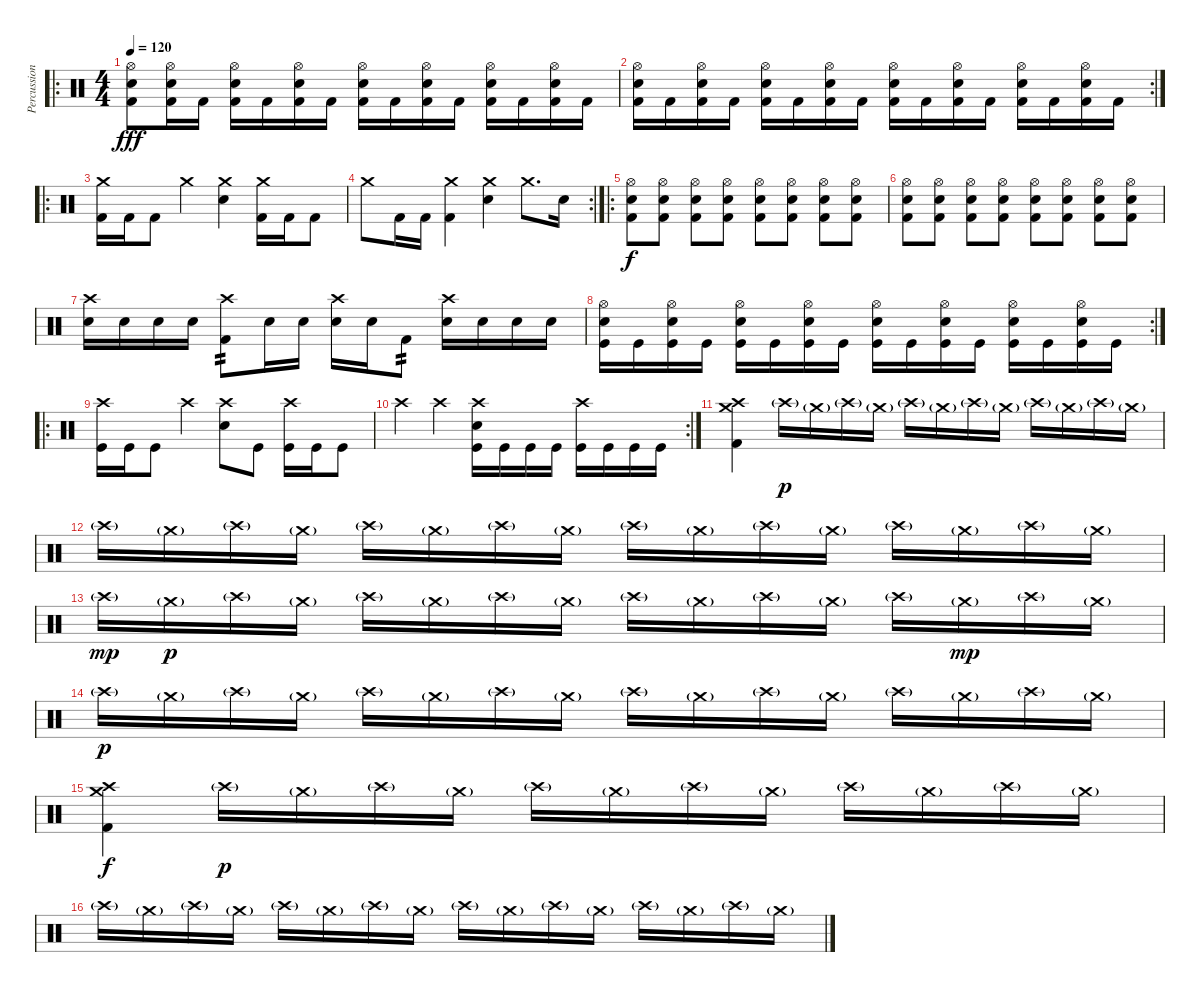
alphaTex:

\track ("Percussions" "Percussion") {instrument percussion}
\staff {score}
\articulation defaults
\ro
\ts (4 4)
\tempo 120
\clef neutral
\ks c
("Hi-Hat (open)" "Electric Snare (hit)" "Kick (hit) 2").8{dy fff volume 12} ("Hi-Hat (open)" "Electric Snare (hit)" "Kick (hit) 2").16 "Kick (hit) 2".16 ("Hi-Hat (open)" "Electric Snare (hit)" "Kick (hit) 2").16 "Kick (hit) 2".16 ("Hi-Hat (open)" "Electric Snare (hit)" "Kick (hit) 2").16 "Kick (hit) 2".16 ("Hi-Hat (open)" "Electric Snare (hit)" "Kick (hit) 2").16 "Kick (hit) 2".16 ("Hi-Hat (open)" "Electric Snare (hit)" "Kick (hit) 2").16 "Kick (hit) 2".16 ("Hi-Hat (open)" "Electric Snare (hit)" "Kick (hit) 2").16 "Kick (hit) 2".16 ("Hi-Hat (open)" "Electric Snare (hit)" "Kick (hit) 2").16 "Kick (hit) 2".16 |
\rc 2
("Hi-Hat (open)" "Electric Snare (hit)" "Kick (hit) 2").16 "Kick (hit) 2".16 ("Hi-Hat (open)" "Electric Snare (hit)" "Kick (hit) 2").16 "Kick (hit) 2".16 ("Hi-Hat (open)" "Electric Snare (hit)" "Kick (hit) 2").16 "Kick (hit) 2".16 ("Hi-Hat (open)" "Electric Snare (hit)" "Kick (hit) 2").16 "Kick (hit) 2".16 ("Hi-Hat (open)" "Electric Snare (hit)" "Kick (hit) 2").16 "Kick (hit) 2".16 ("Hi-Hat (open)" "Electric Snare (hit)" "Kick (hit) 2").16 "Kick (hit) 2".16 ("Hi-Hat (open)" "Electric Snare (hit)" "Kick (hit) 2").16 "Kick (hit) 2".16 ("Hi-Hat (open)" "Electric Snare (hit)" "Kick (hit) 2").16 "Kick (hit) 2".16 |
\ro
("Crash medium (hit)" "Kick (hit) 2").16{volume 16} "Kick (hit) 2".16 "Kick (hit) 2".8 "Crash medium (hit)".4 ("Crash medium (hit)" "Electric Snare (hit)").4 ("Crash medium (hit)" "Kick (hit) 2").16 "Kick (hit) 2".16 "Kick (hit) 2".8 |
\rc 2 "Crash medium (hit)".8 "Kick (hit) 2".16 "Kick (hit) 2".16
("Crash medium (hit)" "Kick (hit) 2").4 ("Crash medium (hit)" "Electric Snare (hit)").4 "Crash medium (hit)".8{d} "Electric Snare (hit)".16 |
\ro
("Hi-Hat (open)" "Electric Snare (hit)" "Kick (hit) 2").8{dy f} ("Hi-Hat (open)" "Electric Snare (hit)" "Kick (hit) 2").8 ("Hi-Hat (open)" "Electric Snare (hit)" "Kick (hit) 2").8 ("Hi-Hat (open)" "Electric Snare (hit)" "Kick (hit) 2").8 ("Hi-Hat (open)" "Electric Snare (hit)" "Kick (hit) 2").8 ("Hi-Hat (open)" "Electric Snare (hit)" "Kick (hit) 2").8 ("Hi-Hat (open)" "Electric Snare (hit)" "Kick (hit) 2").8 ("Hi-Hat (open)" "Electric Snare (hit)" "Kick (hit) 2").8 |
("Hi-Hat (open)" "Electric Snare (hit)" "Kick (hit) 2").8 ("Hi-Hat (open)" "Electric Snare (hit)" "Kick (hit) 2").8 ("Hi-Hat (open)" "Electric Snare (hit)" "Kick (hit) 2").8 ("Hi-Hat (open)" "Electric Snare (hit)" "Kick (hit) 2").8 ("Hi-Hat (open)" "Electric Snare (hit)" "Kick (hit) 2").8 ("Hi-Hat (open)" "Electric Snare (hit)" "Kick (hit) 2").8 ("Hi-Hat (open)" "Electric Snare (hit)" "Kick (hit) 2").8 ("Hi-Hat (open)" "Electric Snare (hit)" "Kick (hit) 2").8 |
("Crash high (hit)" "Electric Snare (hit)").16 "Electric Snare (hit)".16 "Electric Snare (hit)".16 "Electric Snare (hit)".16 ("Crash high (hit)" "Kick (hit) 2").8{tp 2} "Electric Snare (hit)".16 "Electric Snare (hit)".16 ("Crash high (hit)" "Electric Snare (hit)").16 "Electric Snare (hit)".16 "Kick (hit) 2".8{tp 2} ("Crash high (hit)" "Electric Snare (hit)").16 "Electric Snare (hit)".16 "Electric Snare (hit)".16 "Electric Snare (hit)".16 |
\rc 2
("Hi-Hat (open)" "Snare (hit) 2" "Kick (hit)").16 "Kick (hit)".16 ("Hi-Hat (open)" "Snare (hit) 2" "Kick (hit)").16 "Kick (hit)".16 ("Hi-Hat (open)" "Snare (hit) 2" "Kick (hit)").16 "Kick (hit)".16 ("Hi-Hat (open)" "Snare (hit) 2" "Kick (hit)").16 "Kick (hit)".16 ("Hi-Hat (open)" "Snare (hit) 2" "Kick (hit)").16 "Kick (hit)".16 ("Hi-Hat (open)" "Snare (hit) 2" "Kick (hit)").16 "Kick (hit)".16 ("Hi-Hat (open)" "Snare (hit) 2" "Kick (hit)").16 "Kick (hit)".16 ("Hi-Hat (open)" "Snare (hit) 2" "Kick (hit)").16 "Kick (hit)".16 |
\ro
("Crash high (hit)" "Kick (hit)").16 "Kick (hit)".16 "Kick (hit)".8 "Crash high (hit)".4 ("Crash high (hit)" "Snare (hit) 2").8 "Kick (hit)".8 ("Crash high (hit)" "Kick (hit)").16 "Kick (hit)".16 "Kick (hit)".8 |
\rc 2 "Crash high (hit)".4 "Crash high (hit)".4
("Crash high (hit)" "Snare (hit) 2" "Kick (hit)").16 "Kick (hit)".16 "Kick (hit)".16 "Kick (hit)".16 ("Crash high (hit)" "Kick (hit)").16 "Kick (hit)".16 "Kick (hit)".16 "Kick (hit)".16 |
("Crash medium (hit)" "Crash high (hit)" "Kick (hit) 2").4 "Crash high (hit)"{g}.16{dy p} "Crash medium (hit)"{g}.16 "Crash high (hit)"{g}.16 "Crash medium (hit)"{g}.16 "Crash high (hit)"{g}.16 "Crash medium (hit)"{g}.16 "Crash high (hit)"{g}.16 "Crash medium (hit)"{g}.16 "Crash high (hit)"{g}.16 "Crash medium (hit)"{g}.16 "Crash high (hit)"{g}.16 "Crash medium (hit)"{g}.16 |
"Crash high (hit)"{g}.16 "Crash medium (hit)"{g}.16 "Crash high (hit)"{g}.16 "Crash medium (hit)"{g}.16 "Crash high (hit)"{g}.16 "Crash medium (hit)"{g}.16 "Crash high (hit)"{g}.16 "Crash medium (hit)"{g}.16 "Crash high (hit)"{g}.16 "Crash medium (hit)"{g}.16 "Crash high (hit)"{g}.16 "Crash medium (hit)"{g}.16 "Crash high (hit)"{g}.16 "Crash medium (hit)"{g}.16 "Crash high (hit)"{g}.16 "Crash medium (hit)"{g}.16 |
"Crash high (hit)"{g}.16{dy mp} "Crash medium (hit)"{g}.16{dy p} "Crash high (hit)"{g}.16 "Crash medium (hit)"{g}.16 "Crash high (hit)"{g}.16 "Crash medium (hit)"{g}.16 "Crash high (hit)"{g}.16 "Crash medium (hit)"{g}.16 "Crash high (hit)"{g}.16 "Crash medium (hit)"{g}.16 "Crash high (hit)"{g}.16 "Crash medium (hit)"{g}.16 "Crash high (hit)"{g}.16 "Crash medium (hit)"{g}.16{dy mp} "Crash high (hit)"{g}.16 "Crash medium (hit)"{g}.16 |
"Crash high (hit)"{g}.16{dy p} "Crash medium (hit)"{g}.16 "Crash high (hit)"{g}.16 "Crash medium (hit)"{g}.16 "Crash high (hit)"{g}.16 "Crash medium (hit)"{g}.16 "Crash high (hit)"{g}.16 "Crash medium (hit)"{g}.16 "Crash high (hit)"{g}.16 "Crash medium (hit)"{g}.16 "Crash high (hit)"{g}.16 "Crash medium (hit)"{g}.16 "Crash high (hit)"{g}.16 "Crash medium (hit)"{g}.16 "Crash high (hit)"{g}.16 "Crash medium (hit)"{g}.16 |
("Crash medium (hit)" "Crash high (hit)" "Kick (hit) 2").4{dy f} "Crash high (hit)"{g}.16{dy p} "Crash medium (hit)"{g}.16 "Crash high (hit)"{g}.16 "Crash medium (hit)"{g}.16 "Crash high (hit)"{g}.16 "Crash medium (hit)"{g}.16 "Crash high (hit)"{g}.16 "Crash medium (hit)"{g}.16 "Crash high (hit)"{g}.16 "Crash medium (hit)"{g}.16 "Crash high (hit)"{g}.16 "Crash medium (hit)"{g}.16 |
"Crash high (hit)"{g}.16 "Crash medium (hit)"{g}.16 "Crash high (hit)"{g}.16 "Crash medium (hit)"{g}.16 "Crash high (hit)"{g}.16 "Crash medium (hit)"{g}.16 "Crash high (hit)"{g}.16 "Crash medium (hit)"{g}.16 "Crash high (hit)"{g}.16 "Crash medium (hit)"{g}.16 "Crash high (hit)"{g}.16 "Crash medium (hit)"{g}.16 "Crash high (hit)"{g}.16 "Crash medium (hit)"{g}.16 "Crash high (hit)"{g}.16 "Crash medium (hit)"{g}.16
